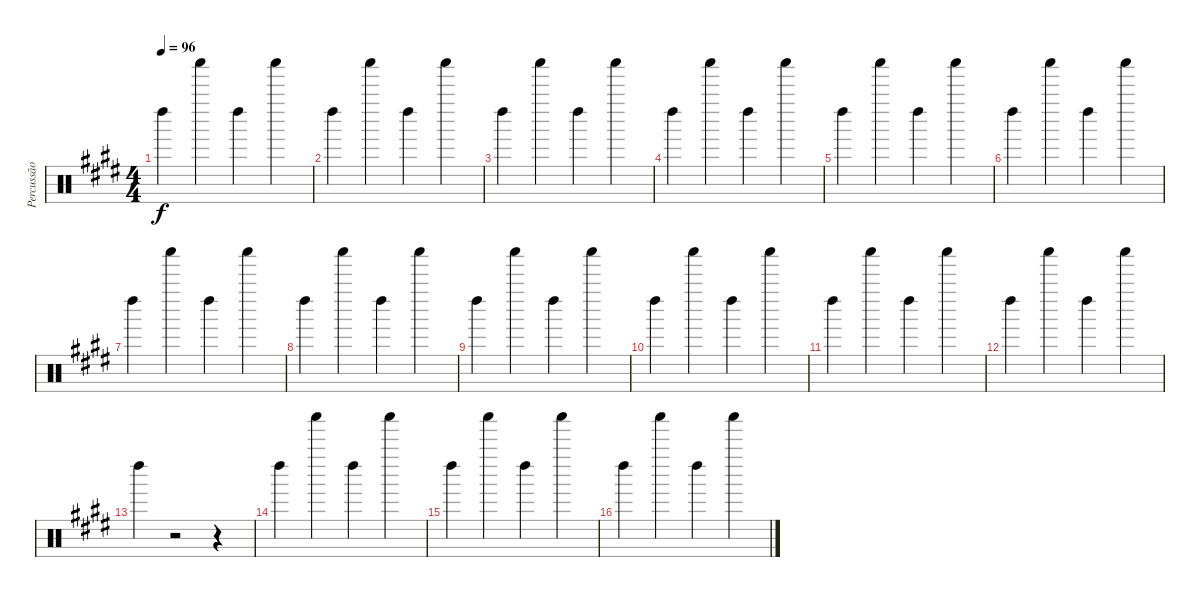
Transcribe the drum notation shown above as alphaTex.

\track ("Percussão" "Percussão") {instrument percussion}
\staff {score}
\articulation defaults
\ts (4 4)
\tempo 96
\clef neutral
\ks e "Left Maraca (hit)".4{dy f} "Shaker (hit)".4 "Left Maraca (hit)".4 "Shaker (hit)".4
|
"Left Maraca (hit)".4 "Shaker (hit)".4 "Left Maraca (hit)".4 "Shaker (hit)".4 |
"Left Maraca (hit)".4 "Shaker (hit)".4 "Left Maraca (hit)".4 "Shaker (hit)".4 |
"Left Maraca (hit)".4 "Shaker (hit)".4 "Left Maraca (hit)".4 "Shaker (hit)".4 |
"Left Maraca (hit)".4 "Shaker (hit)".4 "Left Maraca (hit)".4 "Shaker (hit)".4 |
"Left Maraca (hit)".4 "Shaker (hit)".4 "Left Maraca (hit)".4 "Shaker (hit)".4 |
"Left Maraca (hit)".4 "Shaker (hit)".4 "Left Maraca (hit)".4 "Shaker (hit)".4 |
"Left Maraca (hit)".4 "Shaker (hit)".4 "Left Maraca (hit)".4 "Shaker (hit)".4 |
"Left Maraca (hit)".4 "Shaker (hit)".4 "Left Maraca (hit)".4 "Shaker (hit)".4 |
"Left Maraca (hit)".4 "Shaker (hit)".4 "Left Maraca (hit)".4 "Shaker (hit)".4 |
"Left Maraca (hit)".4 "Shaker (hit)".4 "Left Maraca (hit)".4 "Shaker (hit)".4 |
"Left Maraca (hit)".4 "Shaker (hit)".4 "Left Maraca (hit)".4 "Shaker (hit)".4 |
"Left Maraca (hit)".4 r.2 r.4 |
"Left Maraca (hit)".4 "Shaker (hit)".4 "Left Maraca (hit)".4 "Shaker (hit)".4 |
"Left Maraca (hit)".4 "Shaker (hit)".4 "Left Maraca (hit)".4 "Shaker (hit)".4 |
"Left Maraca (hit)".4 "Shaker (hit)".4 "Left Maraca (hit)".4 "Shaker (hit)".4
